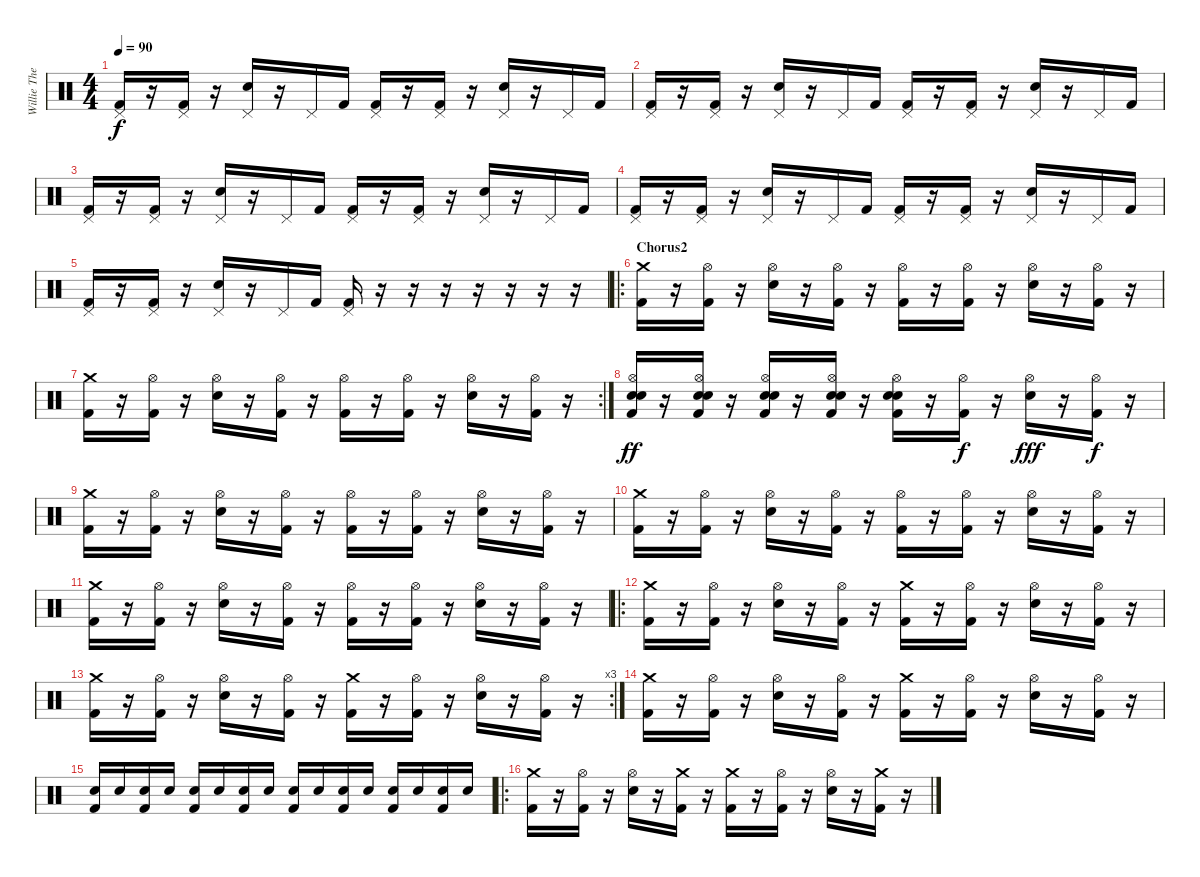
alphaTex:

\track ("Willie The New Guy" "Willie The") {instrument percussion}
\staff {score}
\articulation defaults
\ts (4 4)
\tempo 90
\clef neutral
\ks c
("Pedal Hi-Hat (hit)" "Kick (hit) 2").16{dy f} r.16 ("Pedal Hi-Hat (hit)" "Kick (hit) 2").16 r.16 ("Pedal Hi-Hat (hit)" "Snare (hit) 2").16 r.16 "Pedal Hi-Hat (hit)".16 "Kick (hit) 2".16 ("Pedal Hi-Hat (hit)" "Kick (hit) 2").16 r.16 ("Pedal Hi-Hat (hit)" "Kick (hit) 2").16 r.16 ("Pedal Hi-Hat (hit)" "Snare (hit) 2").16 r.16 "Pedal Hi-Hat (hit)".16 "Kick (hit) 2".16 |
("Pedal Hi-Hat (hit)" "Kick (hit) 2").16 r.16 ("Pedal Hi-Hat (hit)" "Kick (hit) 2").16 r.16 ("Pedal Hi-Hat (hit)" "Snare (hit) 2").16 r.16 "Pedal Hi-Hat (hit)".16 "Kick (hit) 2".16 ("Pedal Hi-Hat (hit)" "Kick (hit) 2").16 r.16 ("Pedal Hi-Hat (hit)" "Kick (hit) 2").16 r.16 ("Pedal Hi-Hat (hit)" "Snare (hit) 2").16 r.16 "Pedal Hi-Hat (hit)".16 "Kick (hit) 2".16 |
("Pedal Hi-Hat (hit)" "Kick (hit) 2").16 r.16 ("Pedal Hi-Hat (hit)" "Kick (hit) 2").16 r.16 ("Pedal Hi-Hat (hit)" "Snare (hit) 2").16 r.16 "Pedal Hi-Hat (hit)".16 "Kick (hit) 2".16 ("Pedal Hi-Hat (hit)" "Kick (hit) 2").16 r.16 ("Pedal Hi-Hat (hit)" "Kick (hit) 2").16 r.16 ("Pedal Hi-Hat (hit)" "Snare (hit) 2").16 r.16 "Pedal Hi-Hat (hit)".16 "Kick (hit) 2".16 |
("Pedal Hi-Hat (hit)" "Kick (hit) 2").16 r.16 ("Pedal Hi-Hat (hit)" "Kick (hit) 2").16 r.16 ("Pedal Hi-Hat (hit)" "Snare (hit) 2").16 r.16 "Pedal Hi-Hat (hit)".16 "Kick (hit) 2".16 ("Pedal Hi-Hat (hit)" "Kick (hit) 2").16 r.16 ("Pedal Hi-Hat (hit)" "Kick (hit) 2").16 r.16 ("Pedal Hi-Hat (hit)" "Snare (hit) 2").16 r.16 "Pedal Hi-Hat (hit)".16 "Kick (hit) 2".16 |
("Pedal Hi-Hat (hit)" "Kick (hit) 2").16 r.16 ("Pedal Hi-Hat (hit)" "Kick (hit) 2").16 r.16 ("Pedal Hi-Hat (hit)" "Snare (hit) 2").16 r.16 "Pedal Hi-Hat (hit)".16 "Kick (hit) 2".16 ("Pedal Hi-Hat (hit)" "Kick (hit) 2").16 r.16 r.16 r.16 r.16 r.16 r.16 r.16 |
\ro
\section ("" "Chorus2")
("Crash medium (hit)" "Kick (hit) 2").16 r.16 ("Hi-Hat (open)" "Kick (hit) 2").16 r.16 ("Hi-Hat (open)" "Snare (hit) 2").16 r.16 ("Hi-Hat (open)" "Kick (hit) 2").16 r.16 ("Hi-Hat (open)" "Kick (hit) 2").16 r.16 ("Hi-Hat (open)" "Kick (hit) 2").16 r.16 ("Hi-Hat (open)" "Snare (hit) 2").16 r.16 ("Hi-Hat (open)" "Kick (hit) 2").16 r.16 |
\rc 2
("Crash medium (hit)" "Kick (hit) 2").16 r.16 ("Hi-Hat (open)" "Kick (hit) 2").16 r.16 ("Hi-Hat (open)" "Snare (hit) 2").16 r.16 ("Hi-Hat (open)" "Kick (hit) 2").16 r.16 ("Hi-Hat (open)" "Kick (hit) 2").16 r.16 ("Hi-Hat (open)" "Kick (hit) 2").16 r.16 ("Hi-Hat (open)" "Snare (hit) 2").16 r.16 ("Hi-Hat (open)" "Kick (hit) 2").16 r.16 |
("Hi-Hat (open)" "Snare (hit) 2" "Electric Snare (hit)" "Kick (hit) 2").16{dy ff} r.16 ("Hi-Hat (open)" "Snare (hit) 2" "Electric Snare (hit)" "Kick (hit) 2").16 r.16 ("Hi-Hat (open)" "Snare (hit) 2" "Electric Snare (hit)" "Kick (hit) 2").16 r.16 ("Hi-Hat (open)" "Snare (hit) 2" "Electric Snare (hit)" "Kick (hit) 2").16 r.16 ("Hi-Hat (open)" "Snare (hit) 2" "Electric Snare (hit)" "Kick (hit) 2").16 r.16 ("Hi-Hat (open)" "Kick (hit) 2").16{dy f} r.16 ("Hi-Hat (open)" "Snare (hit) 2").16{dy fff} r.16 ("Hi-Hat (open)" "Kick (hit) 2").16{dy f} r.16 |
("Crash medium (hit)" "Kick (hit) 2").16 r.16 ("Hi-Hat (open)" "Kick (hit) 2").16 r.16 ("Hi-Hat (open)" "Snare (hit) 2").16 r.16 ("Hi-Hat (open)" "Kick (hit) 2").16 r.16 ("Hi-Hat (open)" "Kick (hit) 2").16 r.16 ("Hi-Hat (open)" "Kick (hit) 2").16 r.16 ("Hi-Hat (open)" "Snare (hit) 2").16 r.16 ("Hi-Hat (open)" "Kick (hit) 2").16 r.16 |
("Crash medium (hit)" "Kick (hit) 2").16 r.16 ("Hi-Hat (open)" "Kick (hit) 2").16 r.16 ("Hi-Hat (open)" "Snare (hit) 2").16 r.16 ("Hi-Hat (open)" "Kick (hit) 2").16 r.16 ("Hi-Hat (open)" "Kick (hit) 2").16 r.16 ("Hi-Hat (open)" "Kick (hit) 2").16 r.16 ("Hi-Hat (open)" "Snare (hit) 2").16 r.16 ("Hi-Hat (open)" "Kick (hit) 2").16 r.16 |
("Crash medium (hit)" "Kick (hit) 2").16 r.16 ("Hi-Hat (open)" "Kick (hit) 2").16 r.16 ("Hi-Hat (open)" "Snare (hit) 2").16 r.16 ("Hi-Hat (open)" "Kick (hit) 2").16 r.16 ("Hi-Hat (open)" "Kick (hit) 2").16 r.16 ("Hi-Hat (open)" "Kick (hit) 2").16 r.16 ("Hi-Hat (open)" "Snare (hit) 2").16 r.16 ("Hi-Hat (open)" "Kick (hit) 2").16 r.16 |
\ro
("Crash medium (hit)" "Kick (hit) 2").16 r.16 ("Hi-Hat (open)" "Kick (hit) 2").16 r.16 ("Hi-Hat (open)" "Snare (hit) 2").16 r.16 ("Hi-Hat (open)" "Kick (hit) 2").16 r.16 ("Crash medium (hit)" "Kick (hit) 2").16 r.16 ("Hi-Hat (open)" "Kick (hit) 2").16 r.16 ("Hi-Hat (open)" "Snare (hit) 2").16 r.16 ("Hi-Hat (open)" "Kick (hit) 2").16 r.16 |
\rc 3
("Crash medium (hit)" "Kick (hit) 2").16 r.16 ("Hi-Hat (open)" "Kick (hit) 2").16 r.16 ("Hi-Hat (open)" "Snare (hit) 2").16 r.16 ("Hi-Hat (open)" "Kick (hit) 2").16 r.16 ("Crash medium (hit)" "Kick (hit) 2").16 r.16 ("Hi-Hat (open)" "Kick (hit) 2").16 r.16 ("Hi-Hat (open)" "Snare (hit) 2").16 r.16 ("Hi-Hat (open)" "Kick (hit) 2").16 r.16 |
("Crash medium (hit)" "Kick (hit) 2").16 r.16 ("Hi-Hat (open)" "Kick (hit) 2").16 r.16 ("Hi-Hat (open)" "Snare (hit) 2").16 r.16 ("Hi-Hat (open)" "Kick (hit) 2").16 r.16 ("Crash medium (hit)" "Kick (hit) 2").16 r.16 ("Hi-Hat (open)" "Kick (hit) 2").16 r.16 ("Hi-Hat (open)" "Snare (hit) 2").16 r.16 ("Hi-Hat (open)" "Kick (hit) 2").16 r.16 |
("Snare (hit) 2" "Kick (hit) 2").16 "Snare (hit) 2".16 ("Snare (hit) 2" "Kick (hit) 2").16 "Snare (hit) 2".16 ("Snare (hit) 2" "Kick (hit) 2").16 "Snare (hit) 2".16 ("Snare (hit) 2" "Kick (hit) 2").16 "Snare (hit) 2".16 ("Snare (hit) 2" "Kick (hit) 2").16 "Snare (hit) 2".16 ("Snare (hit) 2" "Kick (hit) 2").16 "Snare (hit) 2".16 ("Snare (hit) 2" "Kick (hit) 2").16 "Snare (hit) 2".16 ("Snare (hit) 2" "Kick (hit) 2").16 "Snare (hit) 2".16 |
\ro
("Crash medium (hit)" "Kick (hit) 2").16 r.16 ("Hi-Hat (open)" "Kick (hit) 2").16 r.16 ("Hi-Hat (open)" "Snare (hit) 2").16 r.16 ("Crash medium (hit)" "Kick (hit) 2").16 r.16 ("Crash medium (hit)" "Kick (hit) 2").16 r.16 ("Hi-Hat (open)" "Kick (hit) 2").16 r.16 ("Hi-Hat (open)" "Snare (hit) 2").16 r.16 ("Crash medium (hit)" "Kick (hit) 2").16 r.16
